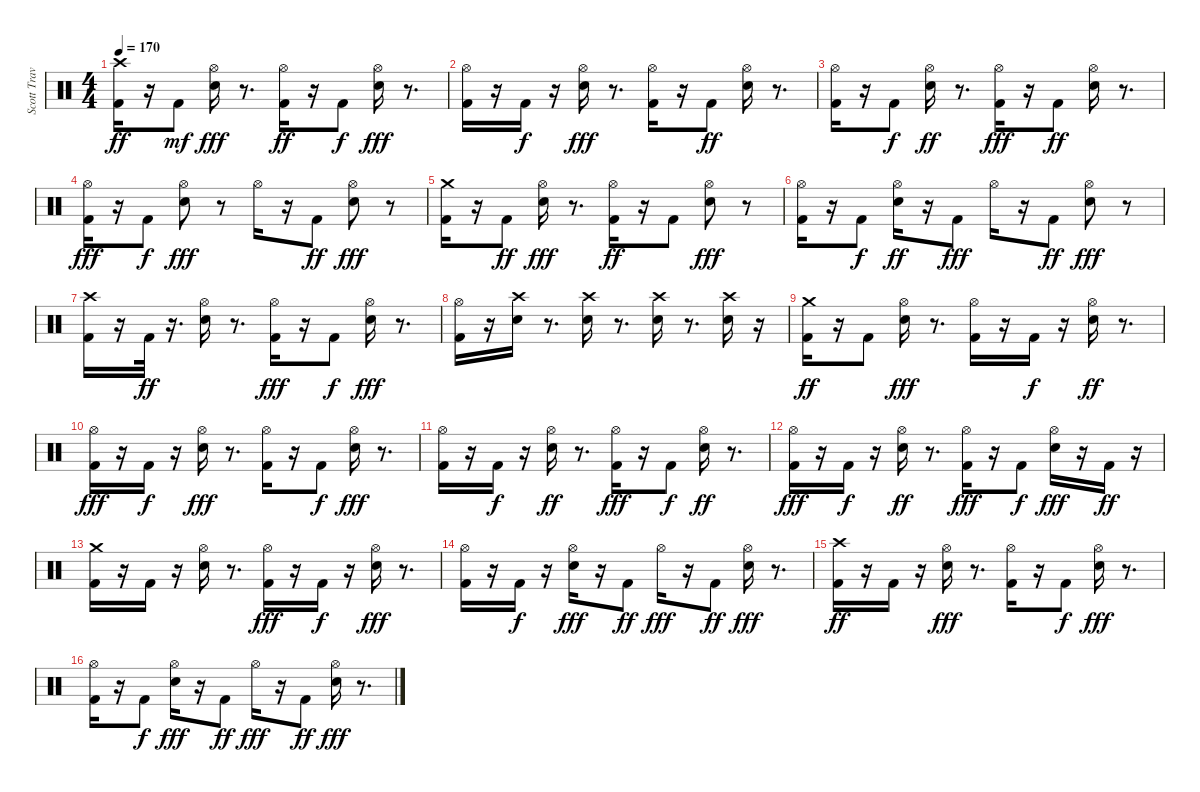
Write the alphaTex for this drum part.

\track ("Scott Travis" "Scott Trav") {instrument percussion}
\staff {score}
\articulation defaults
\ts (4 4)
\tempo 170
\clef neutral
\ks c
("Crash high (hit)" "Kick (hit) 2").16{dy ff volume 16} r.16 "Kick (hit) 2".8{dy mf} ("Snare (hit) 2" "Hi-Hat (open)").16{dy fff} r.8{d} ("Hi-Hat (open)" "Kick (hit) 2").16{dy ff} r.16 "Kick (hit) 2".8{dy f} ("Snare (hit) 2" "Hi-Hat (open)").16{dy fff} r.8{d} |
("Kick (hit) 2" "Hi-Hat (open)").16 r.16 "Kick (hit) 2".16{dy f} r.16 ("Snare (hit) 2" "Hi-Hat (open)").16{dy fff} r.8{d} ("Kick (hit) 2" "Hi-Hat (open)").16 r.16 "Kick (hit) 2".8{dy ff} ("Hi-Hat (open)" "Snare (hit) 2").16 r.8{d} |
("Hi-Hat (open)" "Kick (hit) 2").16 r.16 "Kick (hit) 2".8{dy f} ("Hi-Hat (open)" "Snare (hit) 2").16{dy ff} r.8{d} ("Kick (hit) 2" "Hi-Hat (open)").16{dy fff} r.16 "Kick (hit) 2".8{dy ff} ("Hi-Hat (open)" "Snare (hit) 2").16 r.8{d} |
("Kick (hit) 2" "Hi-Hat (open)").16{dy fff} r.16 "Kick (hit) 2".8{dy f} ("Snare (hit) 2" "Hi-Hat (open)").8{dy fff} r.8 "Hi-Hat (open)".16 r.16 "Kick (hit) 2".8{dy ff} ("Hi-Hat (open)" "Snare (hit) 2").8{dy fff} r.8 |
("Crash medium (hit)" "Kick (hit) 2").16 r.16 "Kick (hit) 2".8{dy ff} ("Snare (hit) 2" "Hi-Hat (open)").16{dy fff} r.8{d} ("Hi-Hat (open)" "Kick (hit) 2").16{dy ff} r.16 "Kick (hit) 2".8 ("Snare (hit) 2" "Hi-Hat (open)").8{dy fff} r.8 |
("Kick (hit) 2" "Hi-Hat (open)").16 r.16 "Kick (hit) 2".8{dy f} ("Hi-Hat (open)" "Snare (hit) 2").16{dy ff} r.16 "Kick (hit) 2".8{dy fff} "Hi-Hat (open)".16 r.16 "Kick (hit) 2".8{dy ff} ("Snare (hit) 2" "Hi-Hat (open)").8{dy fff} r.8 |
("Crash high (hit)" "Kick (hit) 2").16 r.16 "Kick (hit) 2".32{dy ff} r.16{d} ("Hi-Hat (open)" "Snare (hit) 2").16 r.8{d} ("Kick (hit) 2" "Hi-Hat (open)").16{dy fff} r.16 "Kick (hit) 2".8{dy f} ("Snare (hit) 2" "Hi-Hat (open)").16{dy fff} r.8{d} |
("Kick (hit) 2" "Hi-Hat (open)").16 r.16 ("Snare (hit) 2" "Crash high (hit)").16 r.8{d} ("Snare (hit) 2" "Crash high (hit)").16 r.8{d} ("Crash high (hit)" "Snare (hit) 2").16 r.8{d} ("Crash high (hit)" "Snare (hit) 2").16 r.16 |
("Kick (hit) 2" "Crash medium (hit)").16{dy ff} r.16 "Kick (hit) 2".8 ("Hi-Hat (open)" "Snare (hit) 2").16{dy fff} r.8{d} ("Kick (hit) 2" "Hi-Hat (open)").16 r.16 "Kick (hit) 2".16{dy f} r.16 ("Hi-Hat (open)" "Snare (hit) 2").16{dy ff} r.8{d} |
("Hi-Hat (open)" "Kick (hit) 2").16{dy fff} r.16 "Kick (hit) 2".16{dy f} r.16 ("Snare (hit) 2" "Hi-Hat (open)").16{dy fff} r.8{d} ("Kick (hit) 2" "Hi-Hat (open)").16 r.16 "Kick (hit) 2".8{dy f} ("Snare (hit) 2" "Hi-Hat (open)").16{dy fff} r.8{d} |
("Kick (hit) 2" "Hi-Hat (open)").16 r.16 "Kick (hit) 2".16{dy f} r.16 ("Hi-Hat (open)" "Snare (hit) 2").16{dy ff} r.8{d} ("Kick (hit) 2" "Hi-Hat (open)").16{dy fff} r.16 "Kick (hit) 2".8{dy f} ("Hi-Hat (open)" "Snare (hit) 2").16{dy ff} r.8{d} |
("Kick (hit) 2" "Hi-Hat (open)").16{dy fff} r.16 "Kick (hit) 2".16{dy f} r.16 ("Hi-Hat (open)" "Snare (hit) 2").16{dy ff} r.8{d} ("Kick (hit) 2" "Hi-Hat (open)").16{dy fff} r.16 "Kick (hit) 2".8{dy f} ("Snare (hit) 2" "Hi-Hat (open)").16{dy fff} r.16 "Kick (hit) 2".16{dy ff} r.16 |
("Crash medium (hit)" "Kick (hit) 2").16 r.16 "Kick (hit) 2".16 r.16 ("Snare (hit) 2" "Hi-Hat (open)").16 r.8{d} ("Kick (hit) 2" "Hi-Hat (open)").16{dy fff} r.16 "Kick (hit) 2".16{dy f} r.16 ("Snare (hit) 2" "Hi-Hat (open)").16{dy fff} r.8{d} |
("Kick (hit) 2" "Hi-Hat (open)").16 r.16 "Kick (hit) 2".16{dy f} r.16 ("Snare (hit) 2" "Hi-Hat (open)").16{dy fff} r.16 "Kick (hit) 2".8{dy ff} "Hi-Hat (open)".16{dy fff} r.16 "Kick (hit) 2".8{dy ff} ("Snare (hit) 2" "Hi-Hat (open)").16{dy fff} r.8{d} |
("Crash high (hit)" "Kick (hit) 2").16{dy ff} r.16 "Kick (hit) 2".16 r.16 ("Hi-Hat (open)" "Snare (hit) 2").16{dy fff} r.8{d} ("Kick (hit) 2" "Hi-Hat (open)").16 r.16 "Kick (hit) 2".8{dy f} ("Snare (hit) 2" "Hi-Hat (open)").16{dy fff} r.8{d} |
("Kick (hit) 2" "Hi-Hat (open)").16 r.16 "Kick (hit) 2".8{dy f} ("Snare (hit) 2" "Hi-Hat (open)").16{dy fff} r.16 "Kick (hit) 2".8{dy ff} "Hi-Hat (open)".16{dy fff} r.16 "Kick (hit) 2".8{dy ff} ("Snare (hit) 2" "Hi-Hat (open)").16{dy fff} r.8{d}
